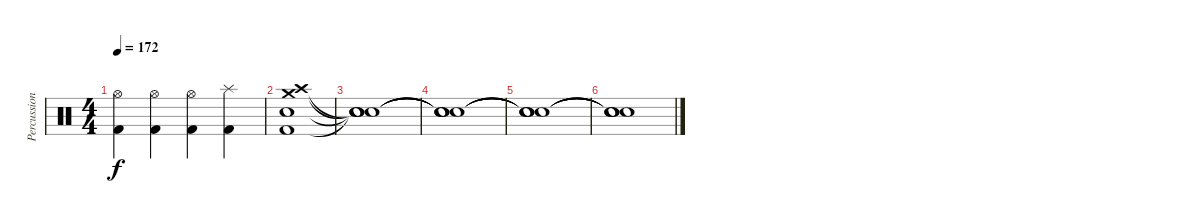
\track ("Percussion" "Percussion") {instrument percussion}
\staff {score}
\articulation defaults
\ts (4 4)
\tempo 172
\clef neutral
\ks c
("Hi-Hat (open)" "Kick (hit) 2").4{dy f} ("Hi-Hat (open)" "Kick (hit) 2").4 ("Hi-Hat (open)" "Kick (hit) 2").4 ("Splash (hit)" "Kick (hit) 2").4 |
("Crash medium (hit)" "Crash high (hit)" "Kick (hit) 2" "Snare (hit) 2").1 |
("Snare (hit)"{t} "Snare (hit)"{t} "Snare (hit)"{t} "Snare (hit)"{t}).1 |
("Snare (hit)"{t} "Snare (hit)"{t} "Snare (hit)"{t} "Snare (hit)"{t}).1 |
("Snare (hit)"{t} "Snare (hit)"{t} "Snare (hit)"{t} "Snare (hit)"{t}).1 |
("Snare (hit)"{t} "Snare (hit)"{t} "Snare (hit)"{t} "Snare (hit)"{t}).1
